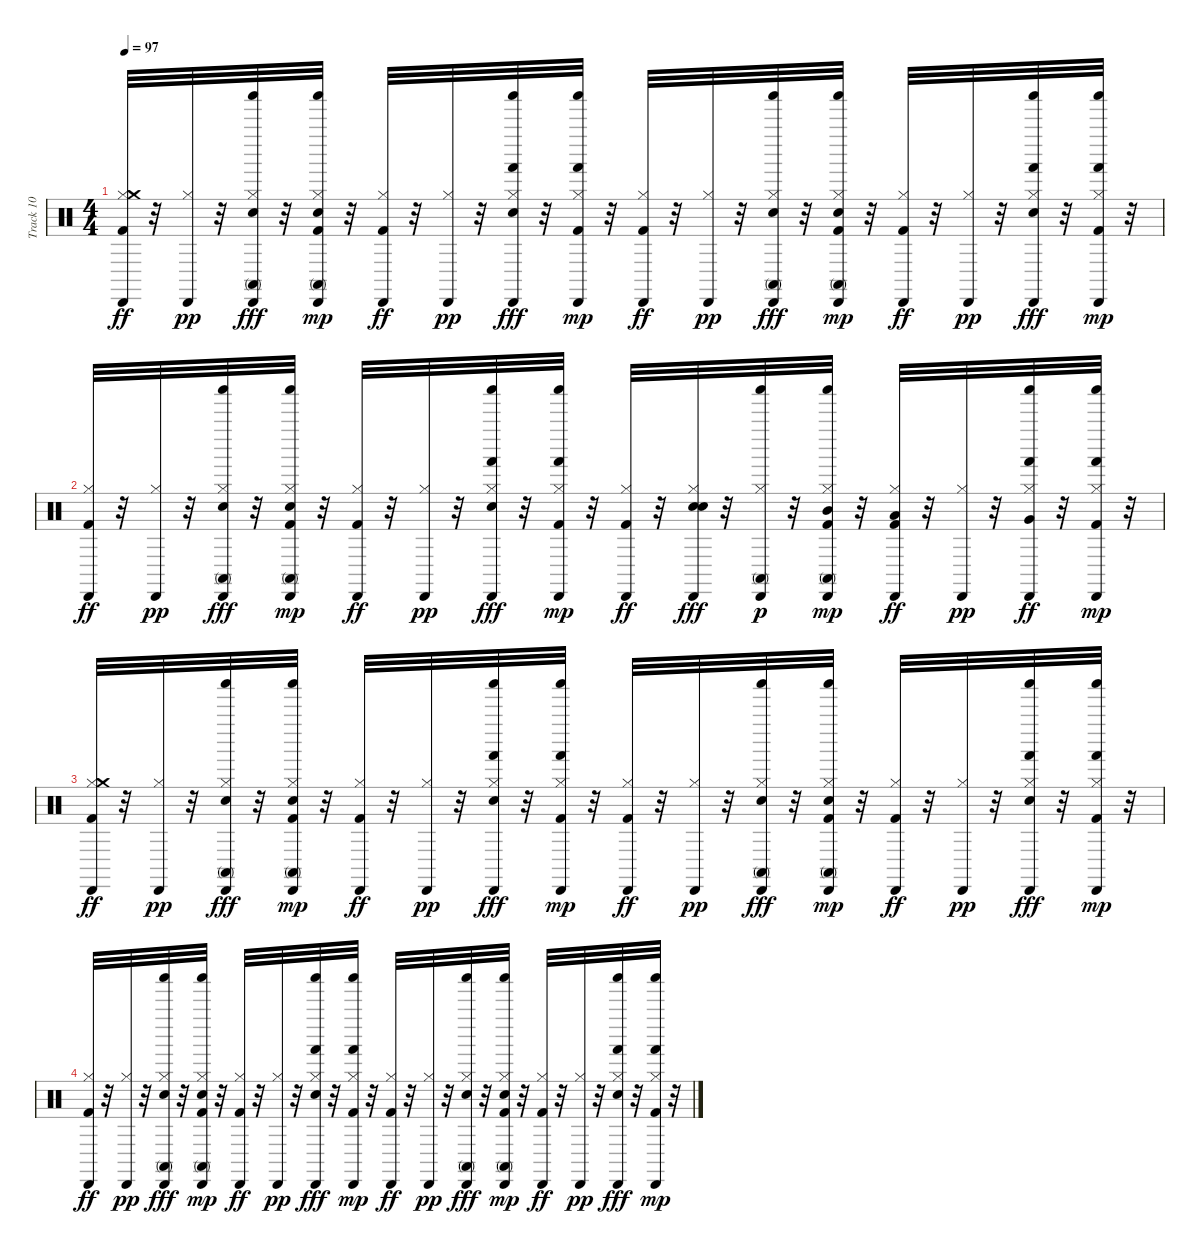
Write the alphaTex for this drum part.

\track ("Track 10" "Track 10") {instrument percussion}
\staff {score}
\articulation defaults
\ts (4 4)
\tempo 97
\clef neutral
\ks c
("Hi-Hat (closed)" "Cabasa (hit)" "Crash medium (hit)" "Kick (hit) 2").32{dy ff} r.32 ("Hi-Hat (closed)" "Cabasa (hit)").32{dy pp} r.32 ("Hi-Hat (closed)" "Shaker (hit)" "Conga high (mute)" "Cabasa (hit)" "Snare (hit) 2").32{dy fff} r.32 ("Hi-Hat (closed)" "Shaker (hit)" "Conga high (mute)" "Cabasa (hit)" "Snare (hit) 2" "Kick (hit) 2").32{dy mp} r.32 ("Hi-Hat (closed)" "Cabasa (hit)" "Kick (hit) 2").32{dy ff} r.32 ("Hi-Hat (closed)" "Cabasa (hit)").32{dy pp} r.32 ("Hi-Hat (closed)" "Shaker (hit)" "Hand (hit)" "Cabasa (hit)" "Snare (hit) 2").32{dy fff} r.32 ("Hi-Hat (closed)" "Shaker (hit)" "Hand (hit)" "Cabasa (hit)" "Kick (hit) 2").32{dy mp} r.32 ("Hi-Hat (closed)" "Cabasa (hit)" "Kick (hit) 2").32{dy ff} r.32 ("Hi-Hat (closed)" "Cabasa (hit)").32{dy pp} r.32 ("Hi-Hat (closed)" "Shaker (hit)" "Conga high (mute)" "Cabasa (hit)" "Snare (hit) 2").32{dy fff} r.32 ("Hi-Hat (closed)" "Shaker (hit)" "Conga high (mute)" "Cabasa (hit)" "Snare (hit) 2" "Kick (hit) 2").32{dy mp} r.32 ("Hi-Hat (closed)" "Cabasa (hit)" "Kick (hit) 2").32{dy ff} r.32 ("Hi-Hat (closed)" "Cabasa (hit)").32{dy pp} r.32 ("Hi-Hat (closed)" "Shaker (hit)" "Hand (hit)" "Cabasa (hit)" "Snare (hit) 2").32{dy fff} r.32 ("Hi-Hat (closed)" "Shaker (hit)" "Hand (hit)" "Cabasa (hit)" "Kick (hit) 2").32{dy mp} r.32 |
("Hi-Hat (closed)" "Cabasa (hit)" "Kick (hit) 2").32{dy ff} r.32 ("Hi-Hat (closed)" "Cabasa (hit)").32{dy pp} r.32 ("Hi-Hat (closed)" "Shaker (hit)" "Conga high (mute)" "Cabasa (hit)" "Snare (hit) 2").32{dy fff} r.32 ("Hi-Hat (closed)" "Shaker (hit)" "Conga high (mute)" "Cabasa (hit)" "Kick (hit) 2" "Snare (hit) 2").32{dy mp} r.32 ("Hi-Hat (closed)" "Cabasa (hit)" "Kick (hit) 2").32{dy ff} r.32 ("Hi-Hat (closed)" "Cabasa (hit)").32{dy pp} r.32 ("Hi-Hat (closed)" "Shaker (hit)" "Hand (hit)" "Cabasa (hit)" "Snare (hit) 2").32{dy fff} r.32 ("Hi-Hat (closed)" "Shaker (hit)" "Hand (hit)" "Cabasa (hit)" "Kick (hit) 2").32{dy mp} r.32 ("Hi-Hat (closed)" "Cabasa (hit)" "Kick (hit) 2").32{dy ff} r.32 ("Hi-Hat (closed)" "Cabasa (hit)" "Electric Snare (hit)" "Electric Snare (hit)").32{dy fff} r.32 ("Hi-Hat (closed)" "Shaker (hit)" "Conga high (mute)" "Cabasa (hit)").32{dy p} r.32 ("Hi-Hat (closed)" "Shaker (hit)" "Conga high (mute)" "Cabasa (hit)" "Mid Tom (hit)" "Kick (hit) 2").32{dy mp} r.32 ("Hi-Hat (closed)" "Cabasa (hit)" "Low Tom (hit)" "Kick (hit) 2").32{dy ff} r.32 ("Hi-Hat (closed)" "Cabasa (hit)").32{dy pp} r.32 ("Hi-Hat (closed)" "Shaker (hit)" "Hand (hit)" "Cabasa (hit)" "Very Low Tom (hit)").32{dy ff} r.32 ("Hi-Hat (closed)" "Shaker (hit)" "Hand (hit)" "Cabasa (hit)" "Kick (hit) 2").32{dy mp} r.32 |
("Hi-Hat (closed)" "Cabasa (hit)" "Crash medium (hit)" "Kick (hit) 2").32{dy ff} r.32 ("Hi-Hat (closed)" "Cabasa (hit)").32{dy pp} r.32 ("Hi-Hat (closed)" "Shaker (hit)" "Conga high (mute)" "Cabasa (hit)" "Snare (hit) 2").32{dy fff} r.32 ("Hi-Hat (closed)" "Shaker (hit)" "Conga high (mute)" "Cabasa (hit)" "Kick (hit) 2" "Snare (hit) 2").32{dy mp} r.32 ("Hi-Hat (closed)" "Cabasa (hit)" "Kick (hit) 2").32{dy ff} r.32 ("Hi-Hat (closed)" "Cabasa (hit)").32{dy pp} r.32 ("Hi-Hat (closed)" "Shaker (hit)" "Hand (hit)" "Cabasa (hit)" "Snare (hit) 2").32{dy fff} r.32 ("Hi-Hat (closed)" "Shaker (hit)" "Hand (hit)" "Cabasa (hit)" "Kick (hit) 2").32{dy mp} r.32 ("Hi-Hat (closed)" "Cabasa (hit)" "Kick (hit) 2").32{dy ff} r.32 ("Hi-Hat (closed)" "Cabasa (hit)").32{dy pp} r.32 ("Hi-Hat (closed)" "Shaker (hit)" "Conga high (mute)" "Cabasa (hit)" "Snare (hit) 2").32{dy fff} r.32 ("Hi-Hat (closed)" "Shaker (hit)" "Conga high (mute)" "Cabasa (hit)" "Snare (hit) 2" "Kick (hit) 2").32{dy mp} r.32 ("Hi-Hat (closed)" "Cabasa (hit)" "Kick (hit) 2").32{dy ff} r.32 ("Hi-Hat (closed)" "Cabasa (hit)").32{dy pp} r.32 ("Hi-Hat (closed)" "Shaker (hit)" "Hand (hit)" "Cabasa (hit)" "Snare (hit) 2").32{dy fff} r.32 ("Hi-Hat (closed)" "Shaker (hit)" "Hand (hit)" "Cabasa (hit)" "Kick (hit) 2").32{dy mp} r.32 |
("Hi-Hat (closed)" "Cabasa (hit)" "Kick (hit) 2").32{dy ff} r.32 ("Hi-Hat (closed)" "Cabasa (hit)").32{dy pp} r.32 ("Hi-Hat (closed)" "Shaker (hit)" "Conga high (mute)" "Cabasa (hit)" "Snare (hit) 2").32{dy fff} r.32 ("Hi-Hat (closed)" "Shaker (hit)" "Conga high (mute)" "Cabasa (hit)" "Snare (hit) 2" "Kick (hit) 2").32{dy mp} r.32 ("Hi-Hat (closed)" "Cabasa (hit)" "Kick (hit) 2").32{dy ff} r.32 ("Hi-Hat (closed)" "Cabasa (hit)").32{dy pp} r.32 ("Hi-Hat (closed)" "Shaker (hit)" "Hand (hit)" "Cabasa (hit)" "Snare (hit) 2").32{dy fff} r.32 ("Hi-Hat (closed)" "Shaker (hit)" "Hand (hit)" "Cabasa (hit)" "Kick (hit) 2").32{dy mp} r.32 ("Hi-Hat (closed)" "Cabasa (hit)" "Kick (hit) 2").32{dy ff} r.32 ("Hi-Hat (closed)" "Cabasa (hit)").32{dy pp} r.32 ("Hi-Hat (closed)" "Shaker (hit)" "Conga high (mute)" "Cabasa (hit)" "Snare (hit) 2").32{dy fff} r.32 ("Hi-Hat (closed)" "Shaker (hit)" "Conga high (mute)" "Cabasa (hit)" "Snare (hit) 2" "Kick (hit) 2").32{dy mp} r.32 ("Hi-Hat (closed)" "Cabasa (hit)" "Kick (hit) 2").32{dy ff} r.32 ("Hi-Hat (closed)" "Cabasa (hit)").32{dy pp} r.32 ("Hi-Hat (closed)" "Shaker (hit)" "Hand (hit)" "Cabasa (hit)" "Snare (hit) 2").32{dy fff} r.32 ("Hi-Hat (closed)" "Shaker (hit)" "Hand (hit)" "Cabasa (hit)" "Kick (hit) 2").32{dy mp} r.32
